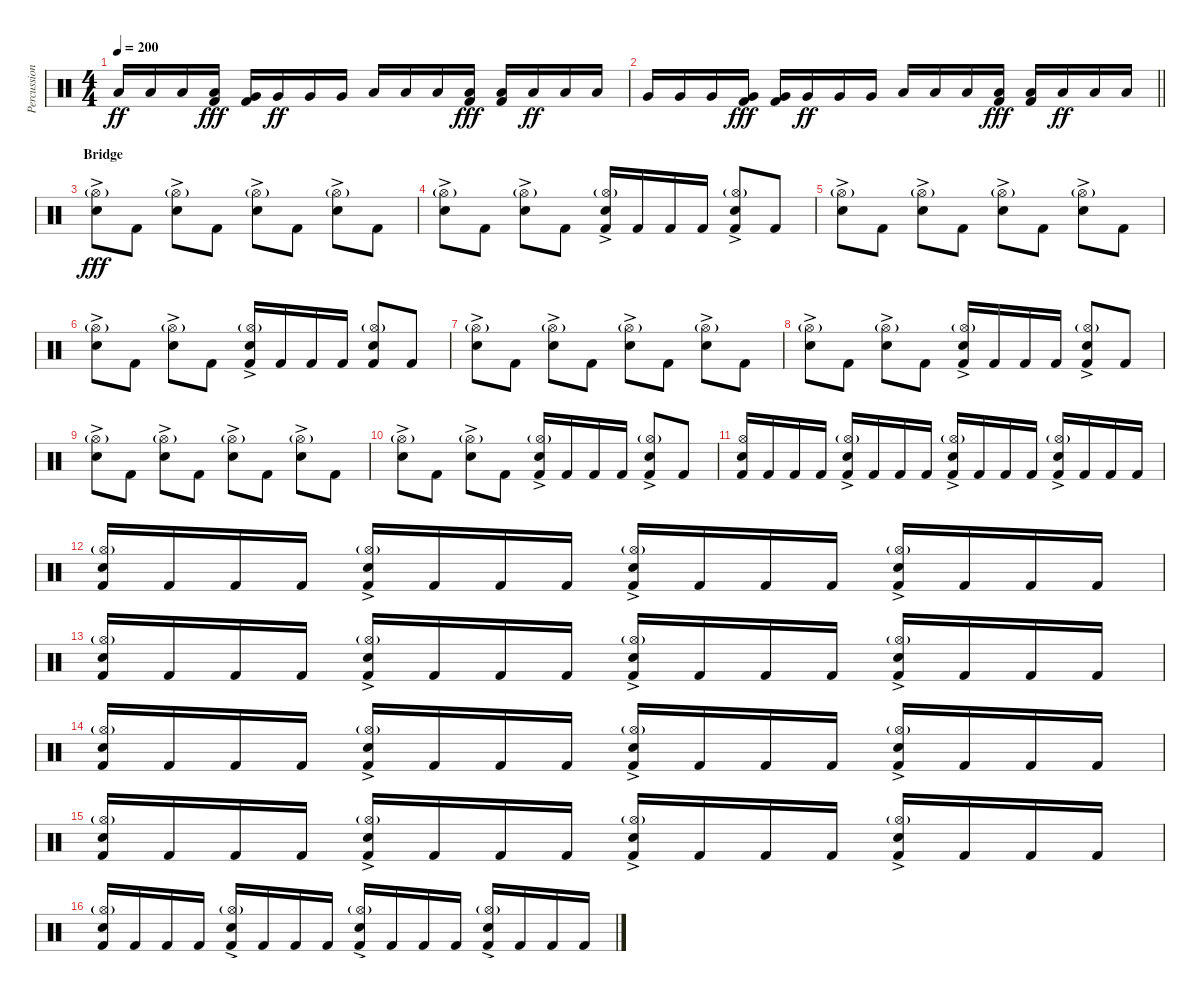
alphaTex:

\track ("Percussion , Drums - Travis Smith" "Percussion") {instrument percussion}
\staff {score}
\articulation defaults
\ts (4 4)
\tempo 200
\clef neutral
\ks c "Low Tom (hit)".16{dy ff} "Low Tom (hit)".16 "Low Tom (hit)".16
("Low Tom (hit)" "Kick (hit) 2").16{dy fff} ("Very Low Tom (hit)" "Kick (hit) 2").16 "Very Low Tom (hit)".16{dy ff} "Very Low Tom (hit)".16 "Very Low Tom (hit)".16 "Low Tom (hit)".16 "Low Tom (hit)".16 "Low Tom (hit)".16 ("Low Tom (hit)" "Kick (hit) 2").16{dy fff} ("Low Floor Tom (hit)" "Kick (hit) 2").16 "Low Floor Tom (hit)".16{dy ff} "Low Floor Tom (hit)".16 "Low Floor Tom (hit)".16 |
\barLineRight lightlight "Very Low Tom (hit)".16 "Very Low Tom (hit)".16 "Very Low Tom (hit)".16
("Very Low Tom (hit)" "Kick (hit) 2").16{dy fff} ("Very Low Tom (hit)" "Kick (hit) 2").16 "Very Low Tom (hit)".16{dy ff} "Very Low Tom (hit)".16 "Very Low Tom (hit)".16 "Low Floor Tom (hit)".16 "Low Floor Tom (hit)".16 "Low Floor Tom (hit)".16 ("Low Floor Tom (hit)" "Kick (hit) 2").16{dy fff} ("Low Floor Tom (hit)" "Kick (hit) 2").16 "Low Floor Tom (hit)".16{dy ff} "Low Floor Tom (hit)".16 "Low Floor Tom (hit)".16 |
\section ("" "Bridge")
("Hi-Hat (open)"{g} "Electric Snare (hit)"{ac}).8{dy fff} "Kick (hit) 2".8 ("Hi-Hat (open)"{g} "Electric Snare (hit)"{ac}).8 "Kick (hit) 2".8 ("Hi-Hat (open)"{g} "Electric Snare (hit)"{ac}).8 "Kick (hit) 2".8 ("Hi-Hat (open)"{g} "Electric Snare (hit)"{ac}).8 "Kick (hit) 2".8 |
("Hi-Hat (open)"{g} "Electric Snare (hit)"{ac}).8 "Kick (hit) 2".8 ("Hi-Hat (open)"{g} "Electric Snare (hit)"{ac}).8 "Kick (hit) 2".8 ("Hi-Hat (open)"{g} "Electric Snare (hit)"{ac} "Kick (hit) 2").16 "Kick (hit) 2".16 "Kick (hit) 2".16 "Kick (hit) 2".16 ("Hi-Hat (open)"{g} "Electric Snare (hit)"{ac} "Kick (hit) 2").8 "Kick (hit) 2".8 |
("Hi-Hat (open)"{g} "Electric Snare (hit)"{ac}).8 "Kick (hit) 2".8 ("Hi-Hat (open)"{g} "Electric Snare (hit)"{ac}).8 "Kick (hit) 2".8 ("Hi-Hat (open)"{g} "Electric Snare (hit)"{ac}).8 "Kick (hit) 2".8 ("Hi-Hat (open)"{g} "Electric Snare (hit)"{ac}).8 "Kick (hit) 2".8 |
("Hi-Hat (open)"{g} "Electric Snare (hit)"{ac}).8 "Kick (hit) 2".8 ("Hi-Hat (open)"{g} "Electric Snare (hit)"{ac}).8 "Kick (hit) 2".8 ("Hi-Hat (open)"{g} "Electric Snare (hit)"{ac} "Kick (hit) 2").16 "Kick (hit) 2".16 "Kick (hit) 2".16 "Kick (hit) 2".16 ("Hi-Hat (open)"{g} "Electric Snare (hit)" "Kick (hit) 2").8 "Kick (hit) 2".8 |
("Hi-Hat (open)"{g} "Electric Snare (hit)"{ac}).8 "Kick (hit) 2".8 ("Hi-Hat (open)"{g} "Electric Snare (hit)"{ac}).8 "Kick (hit) 2".8 ("Hi-Hat (open)"{g} "Electric Snare (hit)"{ac}).8 "Kick (hit) 2".8 ("Hi-Hat (open)"{g} "Electric Snare (hit)"{ac}).8 "Kick (hit) 2".8 |
("Hi-Hat (open)"{g} "Electric Snare (hit)"{ac}).8 "Kick (hit) 2".8 ("Hi-Hat (open)"{g} "Electric Snare (hit)"{ac}).8 "Kick (hit) 2".8 ("Hi-Hat (open)"{g} "Electric Snare (hit)"{ac} "Kick (hit) 2").16 "Kick (hit) 2".16 "Kick (hit) 2".16 "Kick (hit) 2".16 ("Hi-Hat (open)"{g} "Electric Snare (hit)"{ac} "Kick (hit) 2").8 "Kick (hit) 2".8 |
("Hi-Hat (open)"{g} "Electric Snare (hit)"{ac}).8 "Kick (hit) 2".8 ("Hi-Hat (open)"{g} "Electric Snare (hit)"{ac}).8 "Kick (hit) 2".8 ("Hi-Hat (open)"{g} "Electric Snare (hit)"{ac}).8 "Kick (hit) 2".8 ("Hi-Hat (open)"{g} "Electric Snare (hit)"{ac}).8 "Kick (hit) 2".8 |
("Hi-Hat (open)"{g} "Electric Snare (hit)"{ac}).8 "Kick (hit) 2".8 ("Hi-Hat (open)"{g} "Electric Snare (hit)"{ac}).8 "Kick (hit) 2".8 ("Hi-Hat (open)"{g} "Electric Snare (hit)"{ac} "Kick (hit) 2").16 "Kick (hit) 2".16 "Kick (hit) 2".16 "Kick (hit) 2".16 ("Hi-Hat (open)"{g} "Electric Snare (hit)"{ac} "Kick (hit) 2").8 "Kick (hit) 2".8 |
("Hi-Hat (open)" "Electric Snare (hit)" "Kick (hit) 2").16 "Kick (hit) 2".16 "Kick (hit) 2".16 "Kick (hit) 2".16 ("Hi-Hat (open)"{g} "Electric Snare (hit)"{ac} "Kick (hit) 2").16 "Kick (hit) 2".16 "Kick (hit) 2".16 "Kick (hit) 2".16 ("Hi-Hat (open)"{g} "Electric Snare (hit)"{ac} "Kick (hit) 2").16 "Kick (hit) 2".16 "Kick (hit) 2".16 "Kick (hit) 2".16 ("Hi-Hat (open)"{g} "Electric Snare (hit)"{ac} "Kick (hit) 2").16 "Kick (hit) 2".16 "Kick (hit) 2".16 "Kick (hit) 2".16 |
("Hi-Hat (open)"{g} "Electric Snare (hit)" "Kick (hit) 2").16 "Kick (hit) 2".16 "Kick (hit) 2".16 "Kick (hit) 2".16 ("Hi-Hat (open)"{g} "Electric Snare (hit)"{ac} "Kick (hit) 2").16 "Kick (hit) 2".16 "Kick (hit) 2".16 "Kick (hit) 2".16 ("Hi-Hat (open)"{g} "Electric Snare (hit)"{ac} "Kick (hit) 2").16 "Kick (hit) 2".16 "Kick (hit) 2".16 "Kick (hit) 2".16 ("Hi-Hat (open)"{g} "Electric Snare (hit)"{ac} "Kick (hit) 2").16 "Kick (hit) 2".16 "Kick (hit) 2".16 "Kick (hit) 2".16 |
("Hi-Hat (open)"{g} "Electric Snare (hit)" "Kick (hit) 2").16 "Kick (hit) 2".16 "Kick (hit) 2".16 "Kick (hit) 2".16 ("Hi-Hat (open)"{g} "Electric Snare (hit)"{ac} "Kick (hit) 2").16 "Kick (hit) 2".16 "Kick (hit) 2".16 "Kick (hit) 2".16 ("Hi-Hat (open)"{g} "Electric Snare (hit)"{ac} "Kick (hit) 2").16 "Kick (hit) 2".16 "Kick (hit) 2".16 "Kick (hit) 2".16 ("Hi-Hat (open)"{g} "Electric Snare (hit)"{ac} "Kick (hit) 2").16 "Kick (hit) 2".16 "Kick (hit) 2".16 "Kick (hit) 2".16 |
("Hi-Hat (open)"{g} "Electric Snare (hit)" "Kick (hit) 2").16 "Kick (hit) 2".16 "Kick (hit) 2".16 "Kick (hit) 2".16 ("Hi-Hat (open)"{g} "Electric Snare (hit)"{ac} "Kick (hit) 2").16 "Kick (hit) 2".16 "Kick (hit) 2".16 "Kick (hit) 2".16 ("Hi-Hat (open)"{g} "Electric Snare (hit)"{ac} "Kick (hit) 2").16 "Kick (hit) 2".16 "Kick (hit) 2".16 "Kick (hit) 2".16 ("Hi-Hat (open)"{g} "Electric Snare (hit)"{ac} "Kick (hit) 2").16 "Kick (hit) 2".16 "Kick (hit) 2".16 "Kick (hit) 2".16 |
("Hi-Hat (open)"{g} "Electric Snare (hit)" "Kick (hit) 2").16 "Kick (hit) 2".16 "Kick (hit) 2".16 "Kick (hit) 2".16 ("Hi-Hat (open)"{g} "Electric Snare (hit)"{ac} "Kick (hit) 2").16 "Kick (hit) 2".16 "Kick (hit) 2".16 "Kick (hit) 2".16 ("Hi-Hat (open)"{g} "Electric Snare (hit)"{ac} "Kick (hit) 2").16 "Kick (hit) 2".16 "Kick (hit) 2".16 "Kick (hit) 2".16 ("Hi-Hat (open)"{g} "Electric Snare (hit)"{ac} "Kick (hit) 2").16 "Kick (hit) 2".16 "Kick (hit) 2".16 "Kick (hit) 2".16 |
("Hi-Hat (open)"{g} "Electric Snare (hit)" "Kick (hit) 2").16 "Kick (hit) 2".16 "Kick (hit) 2".16 "Kick (hit) 2".16 ("Hi-Hat (open)"{g} "Electric Snare (hit)"{ac} "Kick (hit) 2").16 "Kick (hit) 2".16 "Kick (hit) 2".16 "Kick (hit) 2".16 ("Hi-Hat (open)"{g} "Electric Snare (hit)"{ac} "Kick (hit) 2").16 "Kick (hit) 2".16 "Kick (hit) 2".16 "Kick (hit) 2".16 ("Hi-Hat (open)"{g} "Electric Snare (hit)"{ac} "Kick (hit) 2").16 "Kick (hit) 2".16 "Kick (hit) 2".16 "Kick (hit) 2".16
